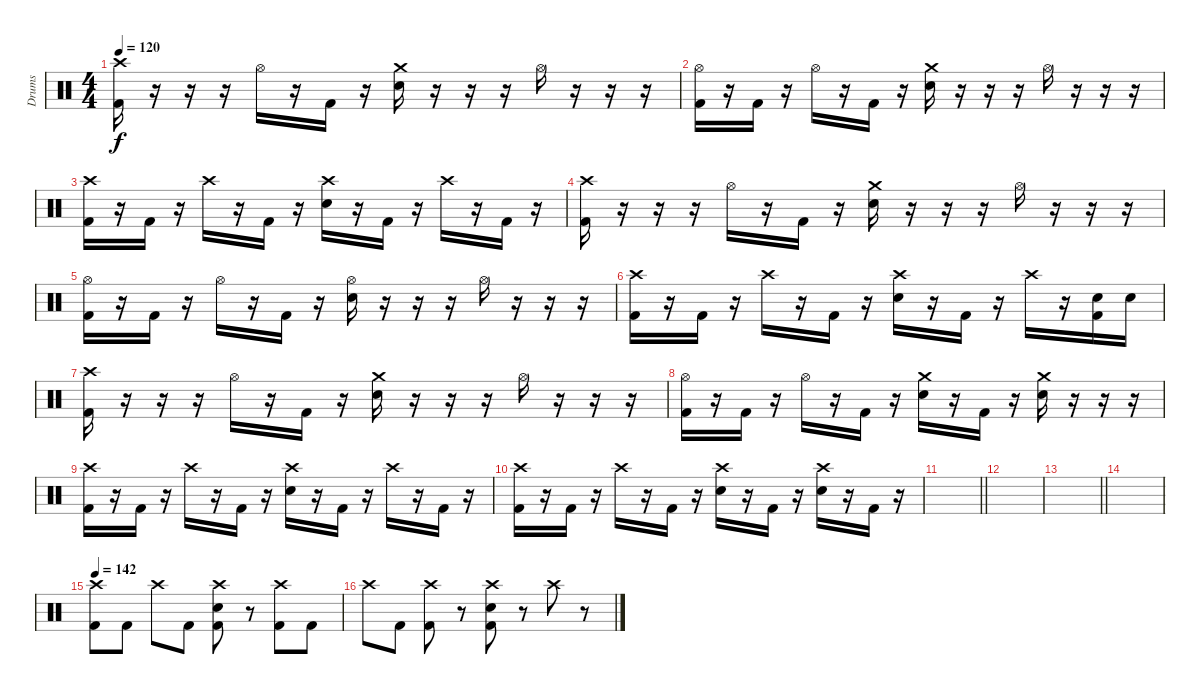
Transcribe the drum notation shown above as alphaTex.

\track ("Drums" "Drums") {instrument percussion}
\staff
\articulation defaults
\ts (4 4)
\tempo 120
\clef neutral
\ks c
("Crash high (hit)" "Kick (hit) 2").16{dy f} r.16 r.16 r.16 "Hi-Hat (open)".16 r.16 "Kick (hit) 2".16 r.16 ("Crash medium (hit)" "Snare (hit) 2").16 r.16 r.16 r.16 "Hi-Hat (open)".16 r.16 r.16 r.16 |
("Hi-Hat (open)" "Kick (hit) 2").16 r.16 "Kick (hit) 2".16 r.16 "Hi-Hat (open)".16 r.16 "Kick (hit) 2".16 r.16 ("Crash medium (hit)" "Snare (hit) 2").16 r.16 r.16 r.16 "Hi-Hat (open)".16 r.16 r.16 r.16 |
("Crash high (hit)" "Kick (hit) 2").16 r.16 "Kick (hit) 2".16 r.16 "Crash high (hit)".16 r.16 "Kick (hit) 2".16 r.16 ("Crash high (hit)" "Snare (hit) 2").16 r.16 "Kick (hit) 2".16 r.16 "Crash high (hit)".16 r.16 "Kick (hit) 2".16 r.16 |
("Crash high (hit)" "Kick (hit) 2").16 r.16 r.16 r.16 "Hi-Hat (open)".16 r.16 "Kick (hit) 2".16 r.16 ("Crash medium (hit)" "Snare (hit) 2").16 r.16 r.16 r.16 "Hi-Hat (open)".16 r.16 r.16 r.16 |
("Hi-Hat (open)" "Kick (hit) 2").16 r.16 "Kick (hit) 2".16 r.16 "Hi-Hat (open)".16 r.16 "Kick (hit) 2".16 r.16 ("Hi-Hat (open)" "Snare (hit) 2").16 r.16 r.16 r.16 "Hi-Hat (open)".16 r.16 r.16 r.16 |
("Crash high (hit)" "Kick (hit) 2").16 r.16 "Kick (hit) 2".16 r.16 "Crash high (hit)".16 r.16 "Kick (hit) 2".16 r.16 ("Crash high (hit)" "Snare (hit) 2").16 r.16 "Kick (hit) 2".16 r.16 "Crash high (hit)".16 r.16 ("Snare (hit) 2" "Kick (hit) 2").16 "Snare (hit) 2".16 |
("Crash high (hit)" "Kick (hit) 2").16 r.16 r.16 r.16 "Hi-Hat (open)".16 r.16 "Kick (hit) 2".16 r.16 ("Crash medium (hit)" "Snare (hit) 2").16 r.16 r.16 r.16 "Hi-Hat (open)".16 r.16 r.16 r.16 |
("Hi-Hat (open)" "Kick (hit) 2").16 r.16 "Kick (hit) 2".16 r.16 "Hi-Hat (open)".16 r.16 "Kick (hit) 2".16 r.16 ("Crash medium (hit)" "Snare (hit) 2").16 r.16 "Kick (hit) 2".16 r.16 ("Crash medium (hit)" "Snare (hit) 2").16 r.16 r.16 r.16 |
("Crash high (hit)" "Kick (hit) 2").16 r.16 "Kick (hit) 2".16 r.16 "Crash high (hit)".16 r.16 "Kick (hit) 2".16 r.16 ("Crash high (hit)" "Snare (hit) 2").16 r.16 "Kick (hit) 2".16 r.16 "Crash high (hit)".16 r.16 "Kick (hit) 2".16 r.16 |
("Crash high (hit)" "Kick (hit) 2").16 r.16 "Kick (hit) 2".16 r.16 "Crash high (hit)".16 r.16 "Kick (hit) 2".16 r.16 ("Crash high (hit)" "Snare (hit) 2").16 r.16 "Kick (hit) 2".16 r.16 ("Crash high (hit)" "Snare (hit) 2").16 r.16 "Kick (hit) 2".16 r.16 |
\barLineRight lightlight
|
|
\barLineRight lightlight
|
\section ("" "")
|
\tempo 142
("Crash high (hit)" "Kick (hit) 2").8 "Kick (hit) 2".8 "Crash high (hit)".8 "Kick (hit) 2".8 ("Crash high (hit)" "Snare (hit) 2" "Kick (hit) 2").8 r.8 ("Crash high (hit)" "Kick (hit) 2").8 "Kick (hit) 2".8 |
"Crash high (hit)".8 "Kick (hit) 2".8 ("Crash high (hit)" "Kick (hit) 2").8 r.8 ("Crash high (hit)" "Snare (hit) 2" "Kick (hit) 2").8 r.8 "Crash high (hit)".8 r.8
